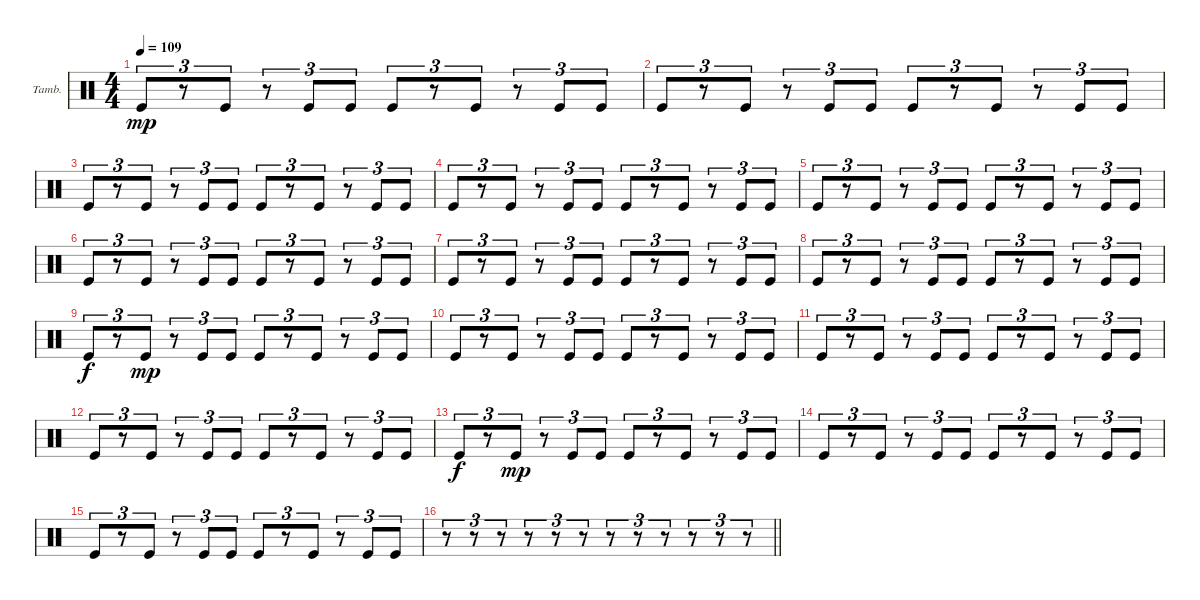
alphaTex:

\bracketExtendMode groupsimilarinstruments
\firstSystemTrackNameOrientation horizontal
\otherSystemsTrackNameOrientation horizontal
\track ("Tambourine" "Tamb.") {instrument percussion}
\staff {score}
\articulation defaults
\ts (4 4)
\tempo 109
\clef neutral
\ks c "Kick (hit)".8{tu (3 2) dy mp}
r.8{tu (3 2)} "Kick (hit)".8{tu (3 2)} r.8{tu (3 2)} "Kick (hit)".8{tu (3 2)} "Kick (hit)".8{tu (3 2)} "Kick (hit)".8{tu (3 2)} r.8{tu (3 2)} "Kick (hit)".8{tu (3 2)} r.8{tu (3 2)} "Kick (hit)".8{tu (3 2)} "Kick (hit)".8{tu (3 2)} |
"Kick (hit)".8{tu (3 2)} r.8{tu (3 2)} "Kick (hit)".8{tu (3 2)} r.8{tu (3 2)} "Kick (hit)".8{tu (3 2)} "Kick (hit)".8{tu (3 2)} "Kick (hit)".8{tu (3 2)} r.8{tu (3 2)} "Kick (hit)".8{tu (3 2)} r.8{tu (3 2)} "Kick (hit)".8{tu (3 2)} "Kick (hit)".8{tu (3 2)} |
"Kick (hit)".8{tu (3 2)} r.8{tu (3 2)} "Kick (hit)".8{tu (3 2)} r.8{tu (3 2)} "Kick (hit)".8{tu (3 2)} "Kick (hit)".8{tu (3 2)} "Kick (hit)".8{tu (3 2)} r.8{tu (3 2)} "Kick (hit)".8{tu (3 2)} r.8{tu (3 2)} "Kick (hit)".8{tu (3 2)} "Kick (hit)".8{tu (3 2)} |
"Kick (hit)".8{tu (3 2)} r.8{tu (3 2)} "Kick (hit)".8{tu (3 2)} r.8{tu (3 2)} "Kick (hit)".8{tu (3 2)} "Kick (hit)".8{tu (3 2)} "Kick (hit)".8{tu (3 2)} r.8{tu (3 2)} "Kick (hit)".8{tu (3 2)} r.8{tu (3 2)} "Kick (hit)".8{tu (3 2)} "Kick (hit)".8{tu (3 2)} |
"Kick (hit)".8{tu (3 2)} r.8{tu (3 2)} "Kick (hit)".8{tu (3 2)} r.8{tu (3 2)} "Kick (hit)".8{tu (3 2)} "Kick (hit)".8{tu (3 2)} "Kick (hit)".8{tu (3 2)} r.8{tu (3 2)} "Kick (hit)".8{tu (3 2)} r.8{tu (3 2)} "Kick (hit)".8{tu (3 2)} "Kick (hit)".8{tu (3 2)} |
"Kick (hit)".8{tu (3 2)} r.8{tu (3 2)} "Kick (hit)".8{tu (3 2)} r.8{tu (3 2)} "Kick (hit)".8{tu (3 2)} "Kick (hit)".8{tu (3 2)} "Kick (hit)".8{tu (3 2)} r.8{tu (3 2)} "Kick (hit)".8{tu (3 2)} r.8{tu (3 2)} "Kick (hit)".8{tu (3 2)} "Kick (hit)".8{tu (3 2)} |
"Kick (hit)".8{tu (3 2)} r.8{tu (3 2)} "Kick (hit)".8{tu (3 2)} r.8{tu (3 2)} "Kick (hit)".8{tu (3 2)} "Kick (hit)".8{tu (3 2)} "Kick (hit)".8{tu (3 2)} r.8{tu (3 2)} "Kick (hit)".8{tu (3 2)} r.8{tu (3 2)} "Kick (hit)".8{tu (3 2)} "Kick (hit)".8{tu (3 2)} |
"Kick (hit)".8{tu (3 2)} r.8{tu (3 2)} "Kick (hit)".8{tu (3 2)} r.8{tu (3 2)} "Kick (hit)".8{tu (3 2)} "Kick (hit)".8{tu (3 2)} "Kick (hit)".8{tu (3 2)} r.8{tu (3 2)} "Kick (hit)".8{tu (3 2)} r.8{tu (3 2)} "Kick (hit)".8{tu (3 2)} "Kick (hit)".8{tu (3 2)} |
"Kick (hit)".8{tu (3 2) dy f} r.8{tu (3 2)} "Kick (hit)".8{tu (3 2) dy mp} r.8{tu (3 2)} "Kick (hit)".8{tu (3 2)} "Kick (hit)".8{tu (3 2)} "Kick (hit)".8{tu (3 2)} r.8{tu (3 2)} "Kick (hit)".8{tu (3 2)} r.8{tu (3 2)} "Kick (hit)".8{tu (3 2)} "Kick (hit)".8{tu (3 2)} |
"Kick (hit)".8{tu (3 2)} r.8{tu (3 2)} "Kick (hit)".8{tu (3 2)} r.8{tu (3 2)} "Kick (hit)".8{tu (3 2)} "Kick (hit)".8{tu (3 2)} "Kick (hit)".8{tu (3 2)} r.8{tu (3 2)} "Kick (hit)".8{tu (3 2)} r.8{tu (3 2)} "Kick (hit)".8{tu (3 2)} "Kick (hit)".8{tu (3 2)} |
"Kick (hit)".8{tu (3 2)} r.8{tu (3 2)} "Kick (hit)".8{tu (3 2)} r.8{tu (3 2)} "Kick (hit)".8{tu (3 2)} "Kick (hit)".8{tu (3 2)} "Kick (hit)".8{tu (3 2)} r.8{tu (3 2)} "Kick (hit)".8{tu (3 2)} r.8{tu (3 2)} "Kick (hit)".8{tu (3 2)} "Kick (hit)".8{tu (3 2)} |
"Kick (hit)".8{tu (3 2)} r.8{tu (3 2)} "Kick (hit)".8{tu (3 2)} r.8{tu (3 2)} "Kick (hit)".8{tu (3 2)} "Kick (hit)".8{tu (3 2)} "Kick (hit)".8{tu (3 2)} r.8{tu (3 2)} "Kick (hit)".8{tu (3 2)} r.8{tu (3 2)} "Kick (hit)".8{tu (3 2)} "Kick (hit)".8{tu (3 2)} |
"Kick (hit)".8{tu (3 2) dy f} r.8{tu (3 2)} "Kick (hit)".8{tu (3 2) dy mp} r.8{tu (3 2)} "Kick (hit)".8{tu (3 2)} "Kick (hit)".8{tu (3 2)} "Kick (hit)".8{tu (3 2)} r.8{tu (3 2)} "Kick (hit)".8{tu (3 2)} r.8{tu (3 2)} "Kick (hit)".8{tu (3 2)} "Kick (hit)".8{tu (3 2)} |
"Kick (hit)".8{tu (3 2)} r.8{tu (3 2)} "Kick (hit)".8{tu (3 2)} r.8{tu (3 2)} "Kick (hit)".8{tu (3 2)} "Kick (hit)".8{tu (3 2)} "Kick (hit)".8{tu (3 2)} r.8{tu (3 2)} "Kick (hit)".8{tu (3 2)} r.8{tu (3 2)} "Kick (hit)".8{tu (3 2)} "Kick (hit)".8{tu (3 2)} |
"Kick (hit)".8{tu (3 2)} r.8{tu (3 2)} "Kick (hit)".8{tu (3 2)} r.8{tu (3 2)} "Kick (hit)".8{tu (3 2)} "Kick (hit)".8{tu (3 2)} "Kick (hit)".8{tu (3 2)} r.8{tu (3 2)} "Kick (hit)".8{tu (3 2)} r.8{tu (3 2)} "Kick (hit)".8{tu (3 2)} "Kick (hit)".8{tu (3 2)} |
\barLineRight lightlight
r.8{tu (3 2)} r.8{tu (3 2)} r.8{tu (3 2)} r.8{tu (3 2)} r.8{tu (3 2)} r.8{tu (3 2)} r.8{tu (3 2)} r.8{tu (3 2)} r.8{tu (3 2)} r.8{tu (3 2)} r.8{tu (3 2)} r.8{tu (3 2)}
